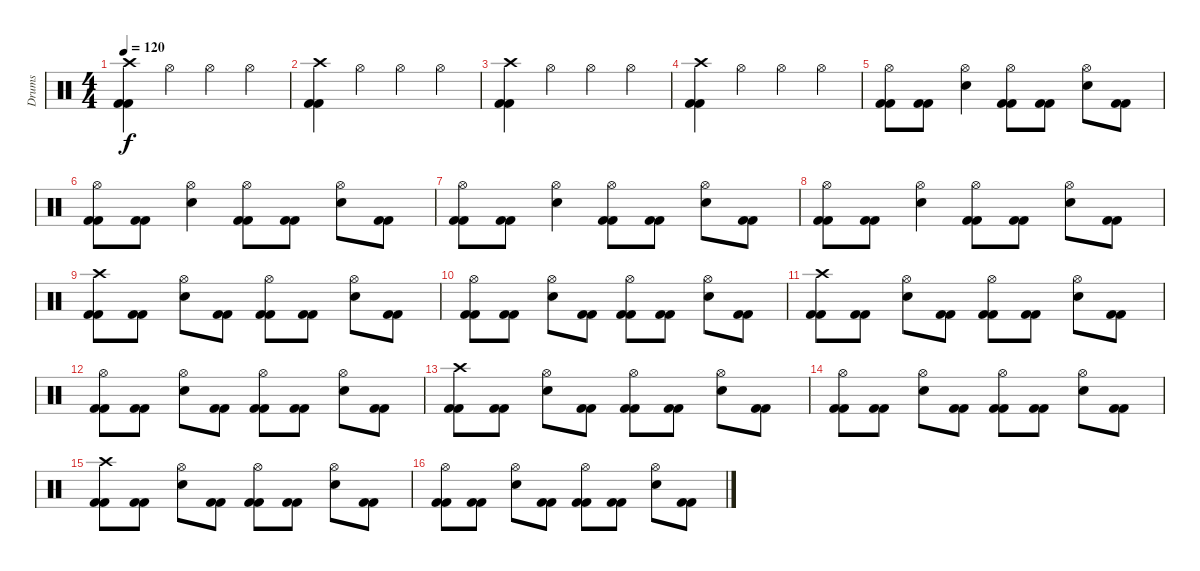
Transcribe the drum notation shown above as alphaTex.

\track ("Drums" "Drums") {instrument percussion}
\staff {score}
\articulation defaults
\ts (4 4)
\tempo 120
\clef neutral
\ks c
("Crash high (hit)" "Kick (hit) 2" "Kick (hit) 2").4{dy f} "Hi-Hat (open)".4 "Hi-Hat (open)".4 "Hi-Hat (open)".4 |
("Crash high (hit)" "Kick (hit) 2" "Kick (hit) 2").4 "Hi-Hat (open)".4 "Hi-Hat (open)".4 "Hi-Hat (open)".4 |
("Crash high (hit)" "Kick (hit) 2" "Kick (hit) 2").4 "Hi-Hat (open)".4 "Hi-Hat (open)".4 "Hi-Hat (open)".4 |
("Crash high (hit)" "Kick (hit) 2" "Kick (hit) 2").4 "Hi-Hat (open)".4 "Hi-Hat (open)".4 "Hi-Hat (open)".4 |
("Hi-Hat (open)" "Kick (hit) 2" "Kick (hit) 2").8 ("Kick (hit) 2" "Kick (hit) 2").8 ("Hi-Hat (open)" "Electric Snare (hit)").4 ("Hi-Hat (open)" "Kick (hit) 2" "Kick (hit) 2").8 ("Kick (hit) 2" "Kick (hit) 2").8 ("Hi-Hat (open)" "Electric Snare (hit)").8 ("Kick (hit) 2" "Kick (hit) 2").8 |
("Hi-Hat (open)" "Kick (hit) 2" "Kick (hit) 2").8 ("Kick (hit) 2" "Kick (hit) 2").8 ("Hi-Hat (open)" "Electric Snare (hit)").4 ("Hi-Hat (open)" "Kick (hit) 2" "Kick (hit) 2").8 ("Kick (hit) 2" "Kick (hit) 2").8 ("Hi-Hat (open)" "Electric Snare (hit)").8 ("Kick (hit) 2" "Kick (hit) 2").8 |
("Hi-Hat (open)" "Kick (hit) 2" "Kick (hit) 2").8 ("Kick (hit) 2" "Kick (hit) 2").8 ("Hi-Hat (open)" "Electric Snare (hit)").4 ("Hi-Hat (open)" "Kick (hit) 2" "Kick (hit) 2").8 ("Kick (hit) 2" "Kick (hit) 2").8 ("Hi-Hat (open)" "Electric Snare (hit)").8 ("Kick (hit) 2" "Kick (hit) 2").8 |
("Hi-Hat (open)" "Kick (hit) 2" "Kick (hit) 2").8 ("Kick (hit) 2" "Kick (hit) 2").8 ("Hi-Hat (open)" "Electric Snare (hit)").4 ("Hi-Hat (open)" "Kick (hit) 2" "Kick (hit) 2").8 ("Kick (hit) 2" "Kick (hit) 2").8 ("Hi-Hat (open)" "Electric Snare (hit)").8 ("Kick (hit) 2" "Kick (hit) 2").8 |
("Crash high (hit)" "Kick (hit) 2" "Kick (hit) 2").8 ("Kick (hit) 2" "Kick (hit) 2").8 ("Hi-Hat (open)" "Electric Snare (hit)").8 ("Kick (hit) 2" "Kick (hit) 2").8 ("Hi-Hat (open)" "Kick (hit) 2" "Kick (hit) 2").8 ("Kick (hit) 2" "Kick (hit) 2").8 ("Electric Snare (hit)" "Hi-Hat (open)").8 ("Kick (hit) 2" "Kick (hit) 2").8 |
("Hi-Hat (open)" "Kick (hit) 2" "Kick (hit) 2").8 ("Kick (hit) 2" "Kick (hit) 2").8 ("Hi-Hat (open)" "Electric Snare (hit)").8 ("Kick (hit) 2" "Kick (hit) 2").8 ("Hi-Hat (open)" "Kick (hit) 2" "Kick (hit) 2").8 ("Kick (hit) 2" "Kick (hit) 2").8 ("Electric Snare (hit)" "Hi-Hat (open)").8 ("Kick (hit) 2" "Kick (hit) 2").8 |
("Crash high (hit)" "Kick (hit) 2" "Kick (hit) 2").8 ("Kick (hit) 2" "Kick (hit) 2").8 ("Hi-Hat (open)" "Electric Snare (hit)").8 ("Kick (hit) 2" "Kick (hit) 2").8 ("Hi-Hat (open)" "Kick (hit) 2" "Kick (hit) 2").8 ("Kick (hit) 2" "Kick (hit) 2").8 ("Electric Snare (hit)" "Hi-Hat (open)").8 ("Kick (hit) 2" "Kick (hit) 2").8 |
("Hi-Hat (open)" "Kick (hit) 2" "Kick (hit) 2").8 ("Kick (hit) 2" "Kick (hit) 2").8 ("Hi-Hat (open)" "Electric Snare (hit)").8 ("Kick (hit) 2" "Kick (hit) 2").8 ("Hi-Hat (open)" "Kick (hit) 2" "Kick (hit) 2").8 ("Kick (hit) 2" "Kick (hit) 2").8 ("Electric Snare (hit)" "Hi-Hat (open)").8 ("Kick (hit) 2" "Kick (hit) 2").8 |
("Crash high (hit)" "Kick (hit) 2" "Kick (hit) 2").8 ("Kick (hit) 2" "Kick (hit) 2").8 ("Hi-Hat (open)" "Electric Snare (hit)").8 ("Kick (hit) 2" "Kick (hit) 2").8 ("Hi-Hat (open)" "Kick (hit) 2" "Kick (hit) 2").8 ("Kick (hit) 2" "Kick (hit) 2").8 ("Electric Snare (hit)" "Hi-Hat (open)").8 ("Kick (hit) 2" "Kick (hit) 2").8 |
("Hi-Hat (open)" "Kick (hit) 2" "Kick (hit) 2").8 ("Kick (hit) 2" "Kick (hit) 2").8 ("Hi-Hat (open)" "Electric Snare (hit)").8 ("Kick (hit) 2" "Kick (hit) 2").8 ("Hi-Hat (open)" "Kick (hit) 2" "Kick (hit) 2").8 ("Kick (hit) 2" "Kick (hit) 2").8 ("Electric Snare (hit)" "Hi-Hat (open)").8 ("Kick (hit) 2" "Kick (hit) 2").8 |
("Crash high (hit)" "Kick (hit) 2" "Kick (hit) 2").8 ("Kick (hit) 2" "Kick (hit) 2").8 ("Hi-Hat (open)" "Electric Snare (hit)").8 ("Kick (hit) 2" "Kick (hit) 2").8 ("Hi-Hat (open)" "Kick (hit) 2" "Kick (hit) 2").8 ("Kick (hit) 2" "Kick (hit) 2").8 ("Electric Snare (hit)" "Hi-Hat (open)").8 ("Kick (hit) 2" "Kick (hit) 2").8 |
("Hi-Hat (open)" "Kick (hit) 2" "Kick (hit) 2").8 ("Kick (hit) 2" "Kick (hit) 2").8 ("Hi-Hat (open)" "Electric Snare (hit)").8 ("Kick (hit) 2" "Kick (hit) 2").8 ("Hi-Hat (open)" "Kick (hit) 2" "Kick (hit) 2").8 ("Kick (hit) 2" "Kick (hit) 2").8 ("Electric Snare (hit)" "Hi-Hat (open)").8 ("Kick (hit) 2" "Kick (hit) 2").8
